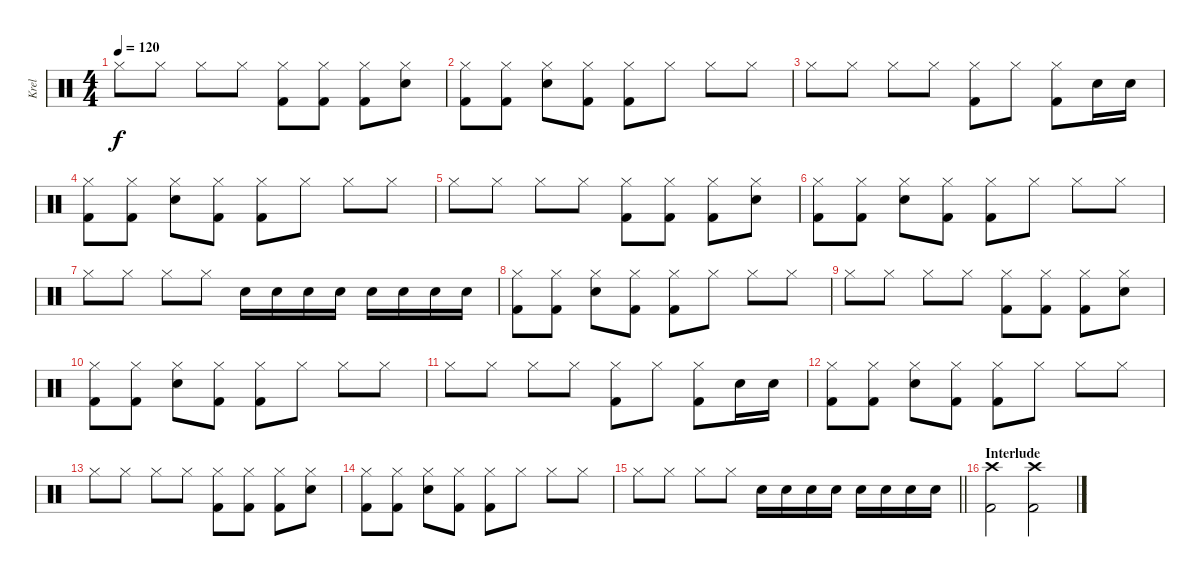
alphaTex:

\track ("Krel" "Krel") {instrument percussion}
\staff {score}
\articulation defaults
\ts (4 4)
\tempo 120
\clef neutral
\ks c "Hi-Hat (closed)".8{dy f} "Hi-Hat (closed)".8 "Hi-Hat (closed)".8 "Hi-Hat (closed)".8
("Hi-Hat (closed)" "Kick (hit) 2").8 ("Hi-Hat (closed)" "Kick (hit) 2").8 ("Hi-Hat (closed)" "Kick (hit) 2").8 ("Hi-Hat (closed)" "Snare (hit) 2").8 |
("Hi-Hat (closed)" "Kick (hit) 2").8 ("Hi-Hat (closed)" "Kick (hit) 2").8 ("Hi-Hat (closed)" "Snare (hit) 2").8 ("Hi-Hat (closed)" "Kick (hit) 2").8 ("Hi-Hat (closed)" "Kick (hit) 2").8 "Hi-Hat (closed)".8 "Hi-Hat (closed)".8 "Hi-Hat (closed)".8 |
"Hi-Hat (closed)".8 "Hi-Hat (closed)".8 "Hi-Hat (closed)".8 "Hi-Hat (closed)".8 ("Hi-Hat (closed)" "Kick (hit) 2").8 "Hi-Hat (closed)".8 ("Hi-Hat (closed)" "Kick (hit) 2").8 "Snare (hit) 2".16 "Snare (hit) 2".16 |
("Hi-Hat (closed)" "Kick (hit) 2").8 ("Hi-Hat (closed)" "Kick (hit) 2").8 ("Hi-Hat (closed)" "Snare (hit) 2").8 ("Hi-Hat (closed)" "Kick (hit) 2").8 ("Hi-Hat (closed)" "Kick (hit) 2").8 "Hi-Hat (closed)".8 "Hi-Hat (closed)".8 "Hi-Hat (closed)".8 |
"Hi-Hat (closed)".8 "Hi-Hat (closed)".8 "Hi-Hat (closed)".8 "Hi-Hat (closed)".8 ("Hi-Hat (closed)" "Kick (hit) 2").8 ("Hi-Hat (closed)" "Kick (hit) 2").8 ("Hi-Hat (closed)" "Kick (hit) 2").8 ("Hi-Hat (closed)" "Snare (hit) 2").8 |
("Hi-Hat (closed)" "Kick (hit) 2").8 ("Hi-Hat (closed)" "Kick (hit) 2").8 ("Hi-Hat (closed)" "Snare (hit) 2").8 ("Hi-Hat (closed)" "Kick (hit) 2").8 ("Hi-Hat (closed)" "Kick (hit) 2").8 "Hi-Hat (closed)".8 "Hi-Hat (closed)".8 "Hi-Hat (closed)".8 |
"Hi-Hat (closed)".8 "Hi-Hat (closed)".8 "Hi-Hat (closed)".8 "Hi-Hat (closed)".8 "Snare (hit) 2".16 "Snare (hit) 2".16 "Snare (hit) 2".16 "Snare (hit) 2".16 "Snare (hit) 2".16 "Snare (hit) 2".16 "Snare (hit) 2".16 "Snare (hit) 2".16 |
("Hi-Hat (closed)" "Kick (hit) 2").8 ("Hi-Hat (closed)" "Kick (hit) 2").8 ("Hi-Hat (closed)" "Snare (hit) 2").8 ("Hi-Hat (closed)" "Kick (hit) 2").8 ("Hi-Hat (closed)" "Kick (hit) 2").8 "Hi-Hat (closed)".8 "Hi-Hat (closed)".8 "Hi-Hat (closed)".8 |
"Hi-Hat (closed)".8 "Hi-Hat (closed)".8 "Hi-Hat (closed)".8 "Hi-Hat (closed)".8 ("Hi-Hat (closed)" "Kick (hit) 2").8 ("Hi-Hat (closed)" "Kick (hit) 2").8 ("Hi-Hat (closed)" "Kick (hit) 2").8 ("Hi-Hat (closed)" "Snare (hit) 2").8 |
("Hi-Hat (closed)" "Kick (hit) 2").8 ("Hi-Hat (closed)" "Kick (hit) 2").8 ("Hi-Hat (closed)" "Snare (hit) 2").8 ("Hi-Hat (closed)" "Kick (hit) 2").8 ("Hi-Hat (closed)" "Kick (hit) 2").8 "Hi-Hat (closed)".8 "Hi-Hat (closed)".8 "Hi-Hat (closed)".8 |
"Hi-Hat (closed)".8 "Hi-Hat (closed)".8 "Hi-Hat (closed)".8 "Hi-Hat (closed)".8 ("Hi-Hat (closed)" "Kick (hit) 2").8 "Hi-Hat (closed)".8 ("Hi-Hat (closed)" "Kick (hit) 2").8 "Snare (hit) 2".16 "Snare (hit) 2".16 |
("Hi-Hat (closed)" "Kick (hit) 2").8 ("Hi-Hat (closed)" "Kick (hit) 2").8 ("Hi-Hat (closed)" "Snare (hit) 2").8 ("Hi-Hat (closed)" "Kick (hit) 2").8 ("Hi-Hat (closed)" "Kick (hit) 2").8 "Hi-Hat (closed)".8 "Hi-Hat (closed)".8 "Hi-Hat (closed)".8 |
"Hi-Hat (closed)".8 "Hi-Hat (closed)".8 "Hi-Hat (closed)".8 "Hi-Hat (closed)".8 ("Hi-Hat (closed)" "Kick (hit) 2").8 ("Hi-Hat (closed)" "Kick (hit) 2").8 ("Hi-Hat (closed)" "Kick (hit) 2").8 ("Hi-Hat (closed)" "Snare (hit) 2").8 |
("Hi-Hat (closed)" "Kick (hit) 2").8 ("Hi-Hat (closed)" "Kick (hit) 2").8 ("Hi-Hat (closed)" "Snare (hit) 2").8 ("Hi-Hat (closed)" "Kick (hit) 2").8 ("Hi-Hat (closed)" "Kick (hit) 2").8 "Hi-Hat (closed)".8 "Hi-Hat (closed)".8 "Hi-Hat (closed)".8 |
\barLineRight lightlight "Hi-Hat (closed)".8 "Hi-Hat (closed)".8 "Hi-Hat (closed)".8 "Hi-Hat (closed)".8 "Snare (hit) 2".16 "Snare (hit) 2".16 "Snare (hit) 2".16 "Snare (hit) 2".16 "Snare (hit) 2".16 "Snare (hit) 2".16 "Snare (hit) 2".16 "Snare (hit) 2".16
|
\section ("" "Interlude")
("Crash high (hit)" "Kick (hit) 2").2 ("Crash high (hit)" "Kick (hit) 2").2
